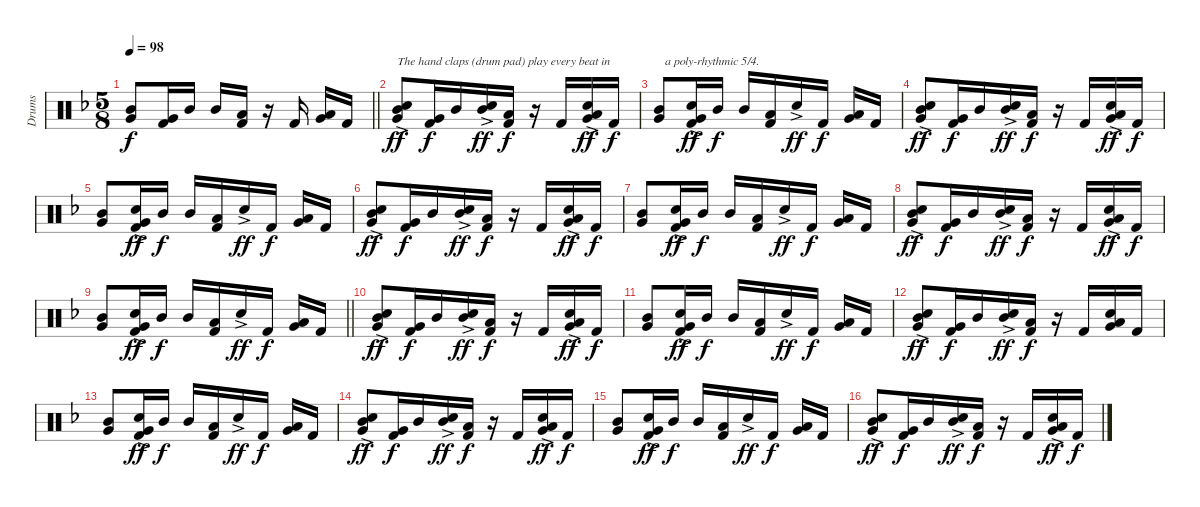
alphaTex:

\track ("Drums" "Drums") {instrument percussion}
\staff {score}
\articulation defaults
\ts (5 8)
\tempo 98
\clef neutral
\barLineRight lightlight
\ks dminor
("Mid Tom (hit)" "Very Low Tom (hit)").8{dy f beam merge} ("Very Low Tom (hit)" "Kick (hit) 2").16 "Mid Tom (hit)".16{beam split} "Mid Tom (hit)".16 ("Low Tom (hit)" "Kick (hit) 2").16 r.16 "Kick (hit) 2".16{beam split} ("Low Tom (hit)" "Very Low Tom (hit)").16 "Kick (hit) 2".16 |
("Hand Clap (hit)"{ac} "Mid Tom (hit)" "Very Low Tom (hit)").8{txt "The hand claps (drum pad) play every beat in" dy ff beam merge} ("Very Low Tom (hit)" "Kick (hit) 2").16{dy f} "Mid Tom (hit)".16 ("Hand Clap (hit)"{ac} "Mid Tom (hit)").16{dy ff} ("Low Tom (hit)" "Kick (hit) 2").16{dy f} r.16 "Kick (hit) 2".16 ("Hand Clap (hit)"{ac} "Low Tom (hit)" "Very Low Tom (hit)").16{dy ff} "Kick (hit) 2".16{dy f} |
("Mid Tom (hit)" "Very Low Tom (hit)").8{txt "  a poly-rhythmic 5/4." beam merge} ("Hand Clap (hit)"{ac} "Very Low Tom (hit)" "Kick (hit) 2").16{dy ff} "Mid Tom (hit)".16{dy f beam split} "Mid Tom (hit)".16 ("Low Tom (hit)" "Kick (hit) 2").16{beam merge} "Hand Clap (hit)"{ac}.16{dy ff} "Kick (hit) 2".16{dy f beam split} ("Low Tom (hit)" "Very Low Tom (hit)").16 "Kick (hit) 2".16 |
("Hand Clap (hit)"{ac} "Mid Tom (hit)" "Very Low Tom (hit)").8{dy ff beam merge} ("Very Low Tom (hit)" "Kick (hit) 2").16{dy f} "Mid Tom (hit)".16 ("Hand Clap (hit)"{ac} "Mid Tom (hit)").16{dy ff} ("Low Tom (hit)" "Kick (hit) 2").16{dy f} r.16 "Kick (hit) 2".16 ("Hand Clap (hit)"{ac} "Low Tom (hit)" "Very Low Tom (hit)").16{dy ff} "Kick (hit) 2".16{dy f} |
("Mid Tom (hit)" "Very Low Tom (hit)").8{beam merge} ("Hand Clap (hit)"{ac} "Very Low Tom (hit)" "Kick (hit) 2").16{dy ff} "Mid Tom (hit)".16{dy f beam split} "Mid Tom (hit)".16 ("Low Tom (hit)" "Kick (hit) 2").16{beam merge} "Hand Clap (hit)"{ac}.16{dy ff} "Kick (hit) 2".16{dy f beam split} ("Low Tom (hit)" "Very Low Tom (hit)").16 "Kick (hit) 2".16 |
("Hand Clap (hit)"{ac} "Mid Tom (hit)" "Very Low Tom (hit)").8{dy ff beam merge} ("Very Low Tom (hit)" "Kick (hit) 2").16{dy f} "Mid Tom (hit)".16 ("Hand Clap (hit)"{ac} "Mid Tom (hit)").16{dy ff} ("Low Tom (hit)" "Kick (hit) 2").16{dy f} r.16 "Kick (hit) 2".16 ("Hand Clap (hit)"{ac} "Low Tom (hit)" "Very Low Tom (hit)").16{dy ff} "Kick (hit) 2".16{dy f} |
("Mid Tom (hit)" "Very Low Tom (hit)").8{beam merge} ("Hand Clap (hit)"{ac} "Very Low Tom (hit)" "Kick (hit) 2").16{dy ff} "Mid Tom (hit)".16{dy f beam split} "Mid Tom (hit)".16 ("Low Tom (hit)" "Kick (hit) 2").16{beam merge} "Hand Clap (hit)"{ac}.16{dy ff} "Kick (hit) 2".16{dy f beam split} ("Low Tom (hit)" "Very Low Tom (hit)").16 "Kick (hit) 2".16 |
("Hand Clap (hit)"{ac} "Mid Tom (hit)" "Very Low Tom (hit)").8{dy ff beam merge} ("Very Low Tom (hit)" "Kick (hit) 2").16{dy f} "Mid Tom (hit)".16 ("Hand Clap (hit)"{ac} "Mid Tom (hit)").16{dy ff} ("Low Tom (hit)" "Kick (hit) 2").16{dy f} r.16 "Kick (hit) 2".16 ("Hand Clap (hit)"{ac} "Low Tom (hit)" "Very Low Tom (hit)").16{dy ff} "Kick (hit) 2".16{dy f} |
\barLineRight lightlight
("Mid Tom (hit)" "Very Low Tom (hit)").8{beam merge} ("Hand Clap (hit)"{ac} "Very Low Tom (hit)" "Kick (hit) 2").16{dy ff} "Mid Tom (hit)".16{dy f beam split} "Mid Tom (hit)".16 ("Low Tom (hit)" "Kick (hit) 2").16{beam merge} "Hand Clap (hit)"{ac}.16{dy ff} "Kick (hit) 2".16{dy f beam split} ("Low Tom (hit)" "Very Low Tom (hit)").16 "Kick (hit) 2".16 |
("Hand Clap (hit)"{ac} "Mid Tom (hit)" "Very Low Tom (hit)").8{dy ff beam merge} ("Very Low Tom (hit)" "Kick (hit) 2").16{dy f} "Mid Tom (hit)".16 ("Hand Clap (hit)"{ac} "Mid Tom (hit)").16{dy ff} ("Low Tom (hit)" "Kick (hit) 2").16{dy f} r.16 "Kick (hit) 2".16 ("Hand Clap (hit)"{ac} "Low Tom (hit)" "Very Low Tom (hit)").16{dy ff} "Kick (hit) 2".16{dy f} |
("Mid Tom (hit)" "Very Low Tom (hit)").8{beam merge} ("Hand Clap (hit)"{ac} "Very Low Tom (hit)" "Kick (hit) 2").16{dy ff} "Mid Tom (hit)".16{dy f beam split} "Mid Tom (hit)".16 ("Low Tom (hit)" "Kick (hit) 2").16{beam merge} "Hand Clap (hit)"{ac}.16{dy ff} "Kick (hit) 2".16{dy f beam split} ("Low Tom (hit)" "Very Low Tom (hit)").16 "Kick (hit) 2".16 |
("Hand Clap (hit)"{ac} "Mid Tom (hit)" "Very Low Tom (hit)").8{dy ff beam merge} ("Very Low Tom (hit)" "Kick (hit) 2").16{dy f} "Mid Tom (hit)".16 ("Hand Clap (hit)"{ac} "Mid Tom (hit)").16{dy ff} ("Low Tom (hit)" "Kick (hit) 2").16{dy f} r.16 "Kick (hit) 2".16 ("Hand Clap (hit)" "Low Tom (hit)" "Very Low Tom (hit)").16 "Kick (hit) 2".16 |
("Mid Tom (hit)" "Very Low Tom (hit)").8{beam merge} ("Hand Clap (hit)"{ac} "Very Low Tom (hit)" "Kick (hit) 2").16{dy ff} "Mid Tom (hit)".16{dy f beam split} "Mid Tom (hit)".16 ("Low Tom (hit)" "Kick (hit) 2").16{beam merge} "Hand Clap (hit)"{ac}.16{dy ff} "Kick (hit) 2".16{dy f beam split} ("Low Tom (hit)" "Very Low Tom (hit)").16 "Kick (hit) 2".16 |
("Hand Clap (hit)"{ac} "Mid Tom (hit)" "Very Low Tom (hit)").8{dy ff beam merge} ("Very Low Tom (hit)" "Kick (hit) 2").16{dy f} "Mid Tom (hit)".16 ("Hand Clap (hit)"{ac} "Mid Tom (hit)").16{dy ff} ("Low Tom (hit)" "Kick (hit) 2").16{dy f} r.16 "Kick (hit) 2".16 ("Hand Clap (hit)"{ac} "Low Tom (hit)" "Very Low Tom (hit)").16{dy ff} "Kick (hit) 2".16{dy f} |
("Mid Tom (hit)" "Very Low Tom (hit)").8{beam merge} ("Hand Clap (hit)"{ac} "Very Low Tom (hit)" "Kick (hit) 2").16{dy ff} "Mid Tom (hit)".16{dy f beam split} "Mid Tom (hit)".16 ("Low Tom (hit)" "Kick (hit) 2").16{beam merge} "Hand Clap (hit)"{ac}.16{dy ff} "Kick (hit) 2".16{dy f beam split} ("Low Tom (hit)" "Very Low Tom (hit)").16 "Kick (hit) 2".16 |
("Hand Clap (hit)"{ac} "Mid Tom (hit)" "Very Low Tom (hit)").8{dy ff beam merge} ("Very Low Tom (hit)" "Kick (hit) 2").16{dy f} "Mid Tom (hit)".16 ("Hand Clap (hit)"{ac} "Mid Tom (hit)").16{dy ff} ("Low Tom (hit)" "Kick (hit) 2").16{dy f} r.16 "Kick (hit) 2".16 ("Hand Clap (hit)"{ac} "Low Tom (hit)" "Very Low Tom (hit)").16{dy ff} "Kick (hit) 2".16{dy f}
